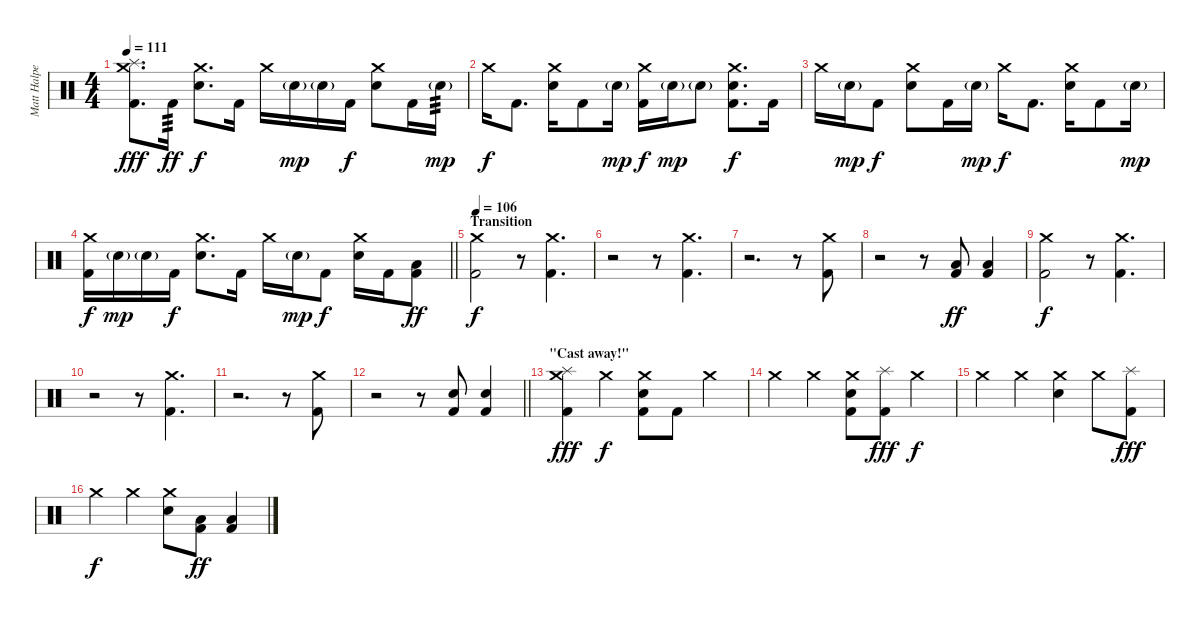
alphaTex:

\track ("Matt Halpern - Drums" "Matt Halpe") {instrument percussion}
\staff {score}
\articulation defaults
\ts (4 4)
\tempo 111
\clef neutral
\ks c
("Crash medium (hit)" "Splash (hit)" "Kick (hit) 2").8{d dy fff} "Kick (hit) 2".16{tp 3 dy ff} ("Crash medium (hit)" "Electric Snare (hit)").8{d dy f} "Kick (hit) 2".16 "Crash medium (hit)".16 "Electric Snare (hit)"{g}.16{dy mp} "Electric Snare (hit)"{g}.16 "Kick (hit) 2".16{dy f} ("Crash medium (hit)" "Electric Snare (hit)").8 "Kick (hit) 2".16 "Electric Snare (hit)"{g}.16{tp 3 dy mp} |
"Crash medium (hit)".16{dy f} "Kick (hit) 2".8{d} ("Crash medium (hit)" "Electric Snare (hit)").16 "Kick (hit) 2".8 "Electric Snare (hit)"{g}.16{dy mp} ("Crash medium (hit)" "Kick (hit) 2").16{dy f} "Electric Snare (hit)"{g}.16{dy mp} "Electric Snare (hit)"{g}.8 ("Crash medium (hit)" "Electric Snare (hit)" "Kick (hit) 2").8{d dy f} "Kick (hit) 2".16 |
"Crash medium (hit)".16 "Electric Snare (hit)"{g}.16{dy mp} "Kick (hit) 2".8{dy f} ("Crash medium (hit)" "Electric Snare (hit)").8 "Kick (hit) 2".16 "Electric Snare (hit)"{g}.16{dy mp} "Crash medium (hit)".16{dy f} "Kick (hit) 2".8{d} ("Crash medium (hit)" "Electric Snare (hit)").16 "Kick (hit) 2".8 "Electric Snare (hit)"{g}.16{dy mp} |
\barLineRight lightlight
("Crash medium (hit)" "Kick (hit) 2").16{dy f} "Electric Snare (hit)"{g}.16{dy mp} "Electric Snare (hit)"{g}.16 "Kick (hit) 2".16{dy f} ("Crash medium (hit)" "Electric Snare (hit)").8{d} "Kick (hit) 2".16 "Crash medium (hit)".16 "Electric Snare (hit)"{g}.16{dy mp} "Kick (hit) 2".8{dy f} ("Crash medium (hit)" "Electric Snare (hit)").16 "Kick (hit) 2".16 ("Low Floor Tom (hit)" "Kick (hit) 2").8{dy ff} |
\section ("" "Transition")
\tempo 106
("Crash medium (hit)" "Kick (hit) 2").2{dy f} r.8 ("Crash medium (hit)" "Kick (hit) 2").4{d} |
r.2 r.8 ("Crash medium (hit)" "Kick (hit) 2").4{d} |
r.2{d} r.8 ("Crash medium (hit)" "Kick (hit) 2").8 |
r.2 r.8 ("Low Floor Tom (hit)" "Kick (hit) 2").8{bd 60 dy ff} ("Low Floor Tom (hit)" "Kick (hit) 2").4{bd 60} |
("Crash medium (hit)" "Kick (hit) 2").2{dy f} r.8 ("Crash medium (hit)" "Kick (hit) 2").4{d} |
r.2 r.8 ("Crash medium (hit)" "Kick (hit) 2").4{d} |
r.2{d} r.8 ("Crash medium (hit)" "Kick (hit) 2").8 |
\barLineRight lightlight
r.2 r.8 ("Electric Snare (hit)" "Kick (hit) 2").8 ("Electric Snare (hit)" "Kick (hit) 2").4 |
\section ("" "\"Cast away!\"")
("Crash medium (hit)" "Splash (hit)" "Kick (hit) 2").4{dy fff} "Crash medium (hit)".4{dy f} ("Crash medium (hit)" "Electric Snare (hit)" "Kick (hit) 2").8 "Kick (hit) 2".8 "Crash medium (hit)".4 |
"Crash medium (hit)".4 "Crash medium (hit)".4 ("Crash medium (hit)" "Electric Snare (hit)" "Kick (hit) 2").8 ("Splash (hit)" "Kick (hit) 2").8{dy fff} "Crash medium (hit)".4{dy f} |
"Crash medium (hit)".4 "Crash medium (hit)".4 ("Crash medium (hit)" "Electric Snare (hit)").4 "Crash medium (hit)".8 ("Splash (hit)" "Kick (hit) 2").8{dy fff} |
"Crash medium (hit)".4{dy f} "Crash medium (hit)".4 ("Crash medium (hit)" "Electric Snare (hit)").8 ("Low Floor Tom (hit)" "Kick (hit) 2").8{bd 60 dy ff} ("Low Floor Tom (hit)" "Kick (hit) 2").4{bd 60}
